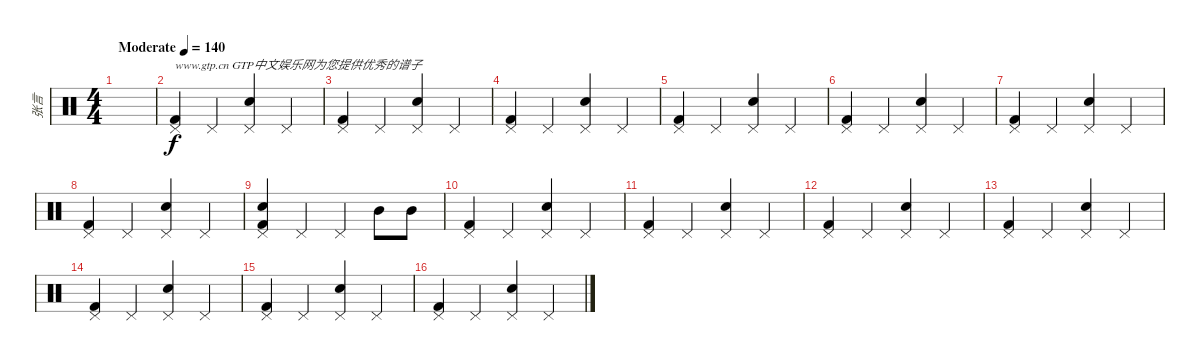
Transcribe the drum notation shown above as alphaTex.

\track ("张言" "张言") {instrument percussion}
\staff {score}
\articulation defaults
\ts (4 4)
\tempo (140 "Moderate")
\clef neutral
\ks c
|
("Kick (hit) 2" "Pedal Hi-Hat (hit)").4{txt "www.gtp.cn GTP中文娱乐网为您提供优秀的谱子"} "Pedal Hi-Hat (hit)".4 ("Snare (hit) 2" "Pedal Hi-Hat (hit)").4 "Pedal Hi-Hat (hit)".4 |
("Kick (hit) 2" "Pedal Hi-Hat (hit)").4 "Pedal Hi-Hat (hit)".4 ("Snare (hit) 2" "Pedal Hi-Hat (hit)").4 "Pedal Hi-Hat (hit)".4 |
("Kick (hit) 2" "Pedal Hi-Hat (hit)").4 "Pedal Hi-Hat (hit)".4 ("Snare (hit) 2" "Pedal Hi-Hat (hit)").4 "Pedal Hi-Hat (hit)".4 |
("Kick (hit) 2" "Pedal Hi-Hat (hit)").4 "Pedal Hi-Hat (hit)".4 ("Snare (hit) 2" "Pedal Hi-Hat (hit)").4 "Pedal Hi-Hat (hit)".4 |
("Kick (hit) 2" "Pedal Hi-Hat (hit)").4 "Pedal Hi-Hat (hit)".4 ("Snare (hit) 2" "Pedal Hi-Hat (hit)").4 "Pedal Hi-Hat (hit)".4 |
("Kick (hit) 2" "Pedal Hi-Hat (hit)").4 "Pedal Hi-Hat (hit)".4 ("Snare (hit) 2" "Pedal Hi-Hat (hit)").4 "Pedal Hi-Hat (hit)".4 |
("Kick (hit) 2" "Pedal Hi-Hat (hit)").4 "Pedal Hi-Hat (hit)".4 ("Snare (hit) 2" "Pedal Hi-Hat (hit)").4 "Pedal Hi-Hat (hit)".4 |
("Kick (hit) 2" "Snare (hit) 2" "Pedal Hi-Hat (hit)").4 "Pedal Hi-Hat (hit)".4 "Pedal Hi-Hat (hit)".4 "Mid Tom (hit)".8 "Mid Tom (hit)".8 |
("Kick (hit) 2" "Pedal Hi-Hat (hit)").4 "Pedal Hi-Hat (hit)".4 ("Snare (hit) 2" "Pedal Hi-Hat (hit)").4 "Pedal Hi-Hat (hit)".4 |
("Kick (hit) 2" "Pedal Hi-Hat (hit)").4 "Pedal Hi-Hat (hit)".4 ("Snare (hit) 2" "Pedal Hi-Hat (hit)").4 "Pedal Hi-Hat (hit)".4 |
("Kick (hit) 2" "Pedal Hi-Hat (hit)").4 "Pedal Hi-Hat (hit)".4 ("Snare (hit) 2" "Pedal Hi-Hat (hit)").4 "Pedal Hi-Hat (hit)".4 |
("Kick (hit) 2" "Pedal Hi-Hat (hit)").4 "Pedal Hi-Hat (hit)".4 ("Snare (hit) 2" "Pedal Hi-Hat (hit)").4 "Pedal Hi-Hat (hit)".4 |
("Kick (hit) 2" "Pedal Hi-Hat (hit)").4 "Pedal Hi-Hat (hit)".4 ("Snare (hit) 2" "Pedal Hi-Hat (hit)").4 "Pedal Hi-Hat (hit)".4 |
("Kick (hit) 2" "Pedal Hi-Hat (hit)").4 "Pedal Hi-Hat (hit)".4 ("Snare (hit) 2" "Pedal Hi-Hat (hit)").4 "Pedal Hi-Hat (hit)".4 |
("Kick (hit) 2" "Pedal Hi-Hat (hit)").4 "Pedal Hi-Hat (hit)".4 ("Snare (hit) 2" "Pedal Hi-Hat (hit)").4 "Pedal Hi-Hat (hit)".4
